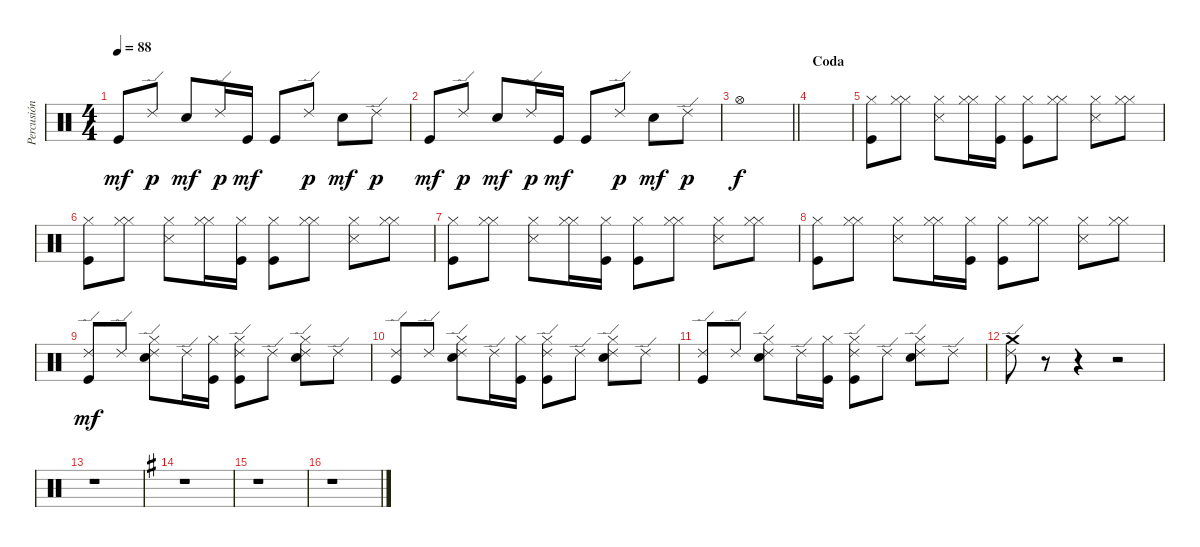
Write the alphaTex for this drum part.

\track ("Percusión" "Percusión") {instrument percussion}
\staff {score}
\articulation defaults
\ts (4 4)
\tempo 88
\clef neutral
\ks c "Kick (hit)".8{dy mf} "Ride (edge) 2".8{dy p} "Electric Snare (hit)".8{dy mf} "Ride (edge) 2".16{dy p} "Kick (hit)".16{dy mf} "Kick (hit)".8 "Ride (edge) 2".8{dy p} "Electric Snare (hit)".8{dy mf} "Ride (edge) 2".8{dy p}
|
"Kick (hit)".8{dy mf} "Ride (edge) 2".8{dy p} "Electric Snare (hit)".8{dy mf} "Ride (edge) 2".16{dy p} "Kick (hit)".16{dy mf} "Kick (hit)".8 "Ride (edge) 2".8{dy p} "Electric Snare (hit)".8{dy mf} "Ride (edge) 2".8{dy p} |
\barLineRight lightlight "Hi-Hat (open)".1{dy f}
|
\section ("" "Coda")
|
("Kick (hit)" "Hi-Hat (closed)").8 ("Hi-Hat (closed)" "Hi-Hat (closed)").8 ("Snare (side stick) 3" "Hi-Hat (closed)").8 ("Hi-Hat (closed)" "Hi-Hat (closed)").16 ("Kick (hit)" "Hi-Hat (closed)").16 ("Kick (hit)" "Hi-Hat (closed)").8 ("Hi-Hat (closed)" "Hi-Hat (closed)").8 ("Snare (side stick) 3" "Hi-Hat (closed)").8 ("Hi-Hat (closed)" "Hi-Hat (closed)").8 |
("Kick (hit)" "Hi-Hat (closed)").8 ("Hi-Hat (closed)" "Hi-Hat (closed)").8 ("Snare (side stick) 3" "Hi-Hat (closed)").8 ("Hi-Hat (closed)" "Hi-Hat (closed)").16 ("Kick (hit)" "Hi-Hat (closed)").16 ("Kick (hit)" "Hi-Hat (closed)").8 ("Hi-Hat (closed)" "Hi-Hat (closed)").8 ("Snare (side stick) 3" "Hi-Hat (closed)").8 ("Hi-Hat (closed)" "Hi-Hat (closed)").8 |
("Kick (hit)" "Hi-Hat (closed)").8 ("Hi-Hat (closed)" "Hi-Hat (closed)").8 ("Snare (side stick) 3" "Hi-Hat (closed)").8 ("Hi-Hat (closed)" "Hi-Hat (closed)").16 ("Kick (hit)" "Hi-Hat (closed)").16 ("Kick (hit)" "Hi-Hat (closed)").8 ("Hi-Hat (closed)" "Hi-Hat (closed)").8 ("Snare (side stick) 3" "Hi-Hat (closed)").8 ("Hi-Hat (closed)" "Hi-Hat (closed)").8 |
("Kick (hit)" "Hi-Hat (closed)").8 ("Hi-Hat (closed)" "Hi-Hat (closed)").8 ("Snare (side stick) 3" "Hi-Hat (closed)").8 ("Hi-Hat (closed)" "Hi-Hat (closed)").16 ("Kick (hit)" "Hi-Hat (closed)").16 ("Kick (hit)" "Hi-Hat (closed)").8 ("Hi-Hat (closed)" "Hi-Hat (closed)").8 ("Snare (side stick) 3" "Hi-Hat (closed)").8 ("Hi-Hat (closed)" "Hi-Hat (closed)").8 |
("Kick (hit)" "Ride (edge) 2").8{dy mf} "Ride (edge) 2".8 ("Electric Snare (hit)" "Ride (edge) 2" "Hi-Hat (closed)").8 "Ride (edge) 2".16 ("Kick (hit)" "Hi-Hat (closed)").16 ("Kick (hit)" "Ride (edge) 2" "Hi-Hat (closed)").8 "Ride (edge) 2".8 ("Electric Snare (hit)" "Ride (edge) 2" "Hi-Hat (closed)").8 "Ride (edge) 2".8 |
("Kick (hit)" "Ride (edge) 2").8 "Ride (edge) 2".8 ("Electric Snare (hit)" "Ride (edge) 2" "Hi-Hat (closed)").8 "Ride (edge) 2".16 ("Kick (hit)" "Hi-Hat (closed)").16 ("Kick (hit)" "Ride (edge) 2" "Hi-Hat (closed)").8 "Ride (edge) 2".8 ("Electric Snare (hit)" "Ride (edge) 2" "Hi-Hat (closed)").8 "Ride (edge) 2".8 |
("Kick (hit)" "Ride (edge) 2").8 "Ride (edge) 2".8 ("Electric Snare (hit)" "Ride (edge) 2" "Hi-Hat (closed)").8 "Ride (edge) 2".16 ("Kick (hit)" "Hi-Hat (closed)").16 ("Kick (hit)" "Ride (edge) 2" "Hi-Hat (closed)").8 "Ride (edge) 2".8 ("Electric Snare (hit)" "Ride (edge) 2" "Hi-Hat (closed)").8 "Ride (edge) 2".8 |
("Crash medium (hit)" "Ride (edge) 2").8 r.8 r.4 r.2 |
r.1 |
\ks g
r.1{volume 10} |
r.1 |
r.1
